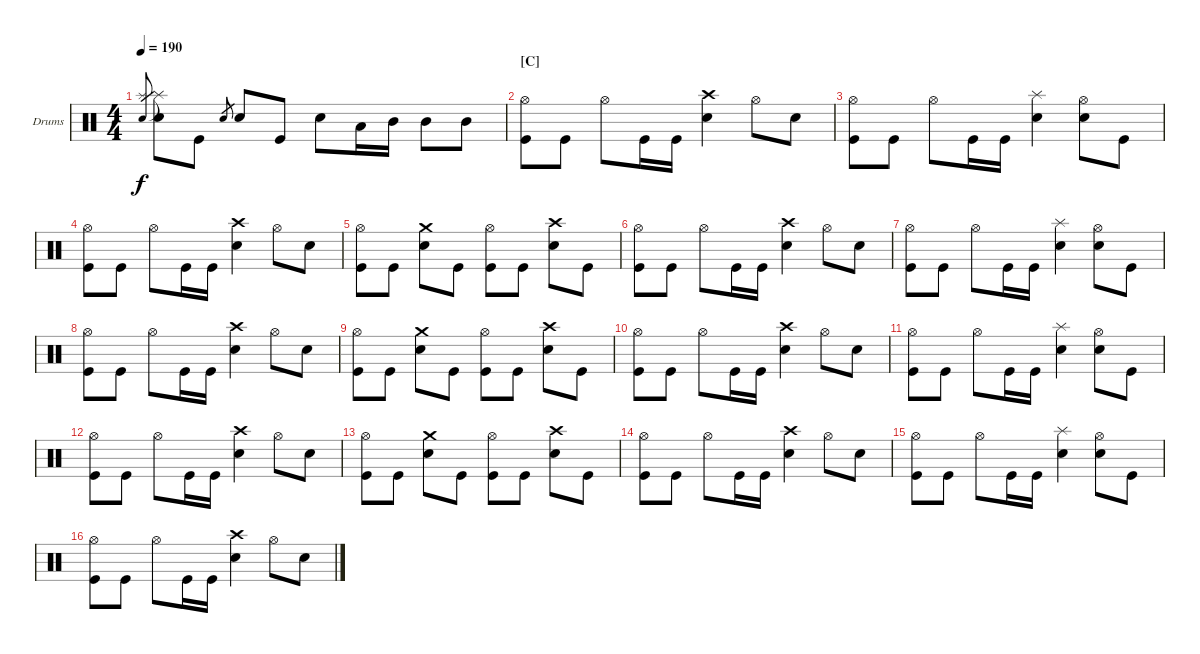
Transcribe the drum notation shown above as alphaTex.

\bracketExtendMode groupsimilarinstruments
\firstSystemTrackNameOrientation horizontal
\otherSystemsTrackNameOrientation horizontal
\track ("Drums" "Drums") {instrument percussion}
\staff {score}
\articulation defaults
\ts (4 4)
\tempo 190
\clef neutral
\ks c
("Snare (hit) 2" "Splash (hit)"{t}).8{gr dy f} ("Splash (hit)"{t} "Snare (hit) 2").8 "Kick (hit)".8 "Snare (hit) 2".8{gr} "Snare (hit) 2".8 "Kick (hit)".8 "Snare (hit) 2".8 "Low Tom (hit)".16 "Mid Tom (hit)".16 "Mid Tom (hit)".8 "Mid Tom (hit)".8 |
\section ("C" "")
("Hi-Hat (open)" "Kick (hit)").8 "Kick (hit)".8 "Hi-Hat (open)".8 "Kick (hit)".16 "Kick (hit)".16 ("Snare (hit) 2" "Crash high (hit)").4 "Hi-Hat (open)".8 "Snare (hit) 2".8 |
("Hi-Hat (open)" "Kick (hit)").8 "Kick (hit)".8 "Hi-Hat (open)".8 "Kick (hit)".16 "Kick (hit)".16 ("Snare (hit) 2" "Splash (hit)").4 ("Hi-Hat (open)" "Snare (hit) 2").8 "Kick (hit)".8 |
("Hi-Hat (open)" "Kick (hit)").8 "Kick (hit)".8 "Hi-Hat (open)".8 "Kick (hit)".16 "Kick (hit)".16 ("Snare (hit) 2" "Crash high (hit)").4 "Hi-Hat (open)".8 "Snare (hit) 2".8 |
("Kick (hit)" "Hi-Hat (open)").8 "Kick (hit)".8 ("Snare (hit) 2" "Crash medium (hit)").8 "Kick (hit)".8 ("Kick (hit)" "Hi-Hat (open)").8 "Kick (hit)".8 ("Snare (hit) 2" "Crash high (hit)").8 "Kick (hit)".8 |
("Hi-Hat (open)" "Kick (hit)").8 "Kick (hit)".8 "Hi-Hat (open)".8 "Kick (hit)".16 "Kick (hit)".16 ("Snare (hit) 2" "Crash high (hit)").4 "Hi-Hat (open)".8 "Snare (hit) 2".8 |
("Hi-Hat (open)" "Kick (hit)").8 "Kick (hit)".8 "Hi-Hat (open)".8 "Kick (hit)".16 "Kick (hit)".16 ("Snare (hit) 2" "Splash (hit)").4 ("Hi-Hat (open)" "Snare (hit) 2").8 "Kick (hit)".8 |
("Hi-Hat (open)" "Kick (hit)").8 "Kick (hit)".8 "Hi-Hat (open)".8 "Kick (hit)".16 "Kick (hit)".16 ("Snare (hit) 2" "Crash high (hit)").4 "Hi-Hat (open)".8 "Snare (hit) 2".8 |
("Kick (hit)" "Hi-Hat (open)").8 "Kick (hit)".8 ("Snare (hit) 2" "Crash medium (hit)").8 "Kick (hit)".8 ("Kick (hit)" "Hi-Hat (open)").8 "Kick (hit)".8 ("Snare (hit) 2" "Crash high (hit)").8 "Kick (hit)".8 |
("Hi-Hat (open)" "Kick (hit)").8 "Kick (hit)".8 "Hi-Hat (open)".8 "Kick (hit)".16 "Kick (hit)".16 ("Snare (hit) 2" "Crash high (hit)").4 "Hi-Hat (open)".8 "Snare (hit) 2".8 |
("Hi-Hat (open)" "Kick (hit)").8 "Kick (hit)".8 "Hi-Hat (open)".8 "Kick (hit)".16 "Kick (hit)".16 ("Snare (hit) 2" "Splash (hit)").4 ("Hi-Hat (open)" "Snare (hit) 2").8 "Kick (hit)".8 |
("Hi-Hat (open)" "Kick (hit)").8 "Kick (hit)".8 "Hi-Hat (open)".8 "Kick (hit)".16 "Kick (hit)".16 ("Snare (hit) 2" "Crash high (hit)").4 "Hi-Hat (open)".8 "Snare (hit) 2".8 |
("Kick (hit)" "Hi-Hat (open)").8 "Kick (hit)".8 ("Snare (hit) 2" "Crash medium (hit)").8 "Kick (hit)".8 ("Kick (hit)" "Hi-Hat (open)").8 "Kick (hit)".8 ("Snare (hit) 2" "Crash high (hit)").8 "Kick (hit)".8 |
("Hi-Hat (open)" "Kick (hit)").8 "Kick (hit)".8 "Hi-Hat (open)".8 "Kick (hit)".16 "Kick (hit)".16 ("Snare (hit) 2" "Crash high (hit)").4 "Hi-Hat (open)".8 "Snare (hit) 2".8 |
("Hi-Hat (open)" "Kick (hit)").8 "Kick (hit)".8 "Hi-Hat (open)".8 "Kick (hit)".16 "Kick (hit)".16 ("Snare (hit) 2" "Splash (hit)").4 ("Hi-Hat (open)" "Snare (hit) 2").8 "Kick (hit)".8 |
("Hi-Hat (open)" "Kick (hit)").8 "Kick (hit)".8 "Hi-Hat (open)".8 "Kick (hit)".16 "Kick (hit)".16 ("Snare (hit) 2" "Crash high (hit)").4 "Hi-Hat (open)".8 "Snare (hit) 2".8
